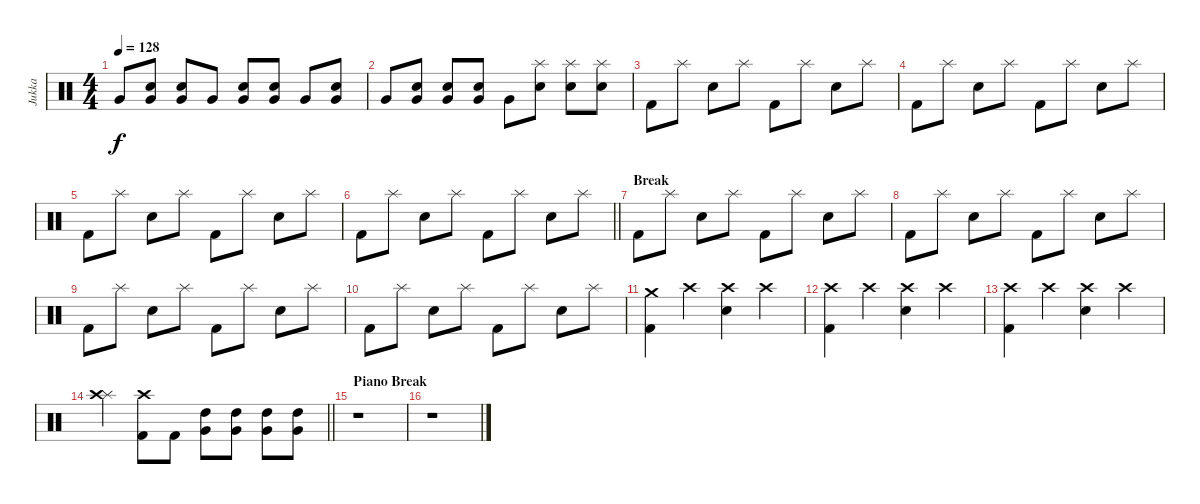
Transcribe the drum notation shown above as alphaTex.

\track ("Jukka" "Jukka") {instrument percussion}
\staff {score}
\articulation defaults
\ts (4 4)
\tempo 128
\clef neutral
\ks c "Very Low Tom (hit)".8{dy f}
("Electric Snare (hit)" "Very Low Tom (hit)").8 ("Electric Snare (hit)" "Very Low Tom (hit)").8 "Very Low Tom (hit)".8 ("Electric Snare (hit)" "Very Low Tom (hit)").8 ("Electric Snare (hit)" "Very Low Tom (hit)").8 "Very Low Tom (hit)".8 ("Electric Snare (hit)" "Very Low Tom (hit)").8 |
"Very Low Tom (hit)".8 ("Electric Snare (hit)" "Very Low Tom (hit)").8 ("Electric Snare (hit)" "Very Low Tom (hit)").8 ("Electric Snare (hit)" "Very Low Tom (hit)").8 "Very Low Tom (hit)".8 ("Electric Snare (hit)" "Splash (hit)").8 ("Electric Snare (hit)" "Splash (hit)").8 ("Electric Snare (hit)" "Splash (hit)").8 |
"Kick (hit) 2".8 "Splash (hit)".8 "Electric Snare (hit)".8 "Splash (hit)".8 "Kick (hit) 2".8 "Splash (hit)".8 "Electric Snare (hit)".8 "Splash (hit)".8 |
"Kick (hit) 2".8 "Splash (hit)".8 "Electric Snare (hit)".8 "Splash (hit)".8 "Kick (hit) 2".8 "Splash (hit)".8 "Electric Snare (hit)".8 "Splash (hit)".8 |
"Kick (hit) 2".8 "Splash (hit)".8 "Electric Snare (hit)".8 "Splash (hit)".8 "Kick (hit) 2".8 "Splash (hit)".8 "Electric Snare (hit)".8 "Splash (hit)".8 |
\barLineRight lightlight "Kick (hit) 2".8 "Splash (hit)".8 "Electric Snare (hit)".8 "Splash (hit)".8 "Kick (hit) 2".8 "Splash (hit)".8 "Electric Snare (hit)".8 "Splash (hit)".8
|
\section ("" "Break")
"Kick (hit) 2".8 "Splash (hit)".8 "Electric Snare (hit)".8 "Splash (hit)".8 "Kick (hit) 2".8 "Splash (hit)".8 "Electric Snare (hit)".8 "Splash (hit)".8 |
"Kick (hit) 2".8 "Splash (hit)".8 "Electric Snare (hit)".8 "Splash (hit)".8 "Kick (hit) 2".8 "Splash (hit)".8 "Electric Snare (hit)".8 "Splash (hit)".8 |
"Kick (hit) 2".8 "Splash (hit)".8 "Electric Snare (hit)".8 "Splash (hit)".8 "Kick (hit) 2".8 "Splash (hit)".8 "Electric Snare (hit)".8 "Splash (hit)".8 |
"Kick (hit) 2".8 "Splash (hit)".8 "Electric Snare (hit)".8 "Splash (hit)".8 "Kick (hit) 2".8 "Splash (hit)".8 "Electric Snare (hit)".8 "Splash (hit)".8 |
("Kick (hit) 2" "Crash medium (hit)").4 "Crash high (hit)".4 ("Electric Snare (hit)" "Crash high (hit)").4 "Crash high (hit)".4 |
("Kick (hit) 2" "Crash high (hit)").4 "Crash high (hit)".4 ("Electric Snare (hit)" "Crash high (hit)").4 "Crash high (hit)".4 |
("Kick (hit) 2" "Crash high (hit)").4 "Crash high (hit)".4 ("Electric Snare (hit)" "Crash high (hit)").4 "Crash high (hit)".4 |
\barLineRight lightlight
("Splash (hit)" "Crash high (hit)").4 ("Kick (hit) 2" "Crash high (hit)").8 "Kick (hit) 2".8 ("Very Low Tom (hit)" "High Tom (hit)").8 ("Very Low Tom (hit)" "High Tom (hit)").8 ("Very Low Tom (hit)" "High Tom (hit)").8 ("Very Low Tom (hit)" "High Tom (hit)").8 |
\section ("" "Piano Break")
r.1 |
r.1
